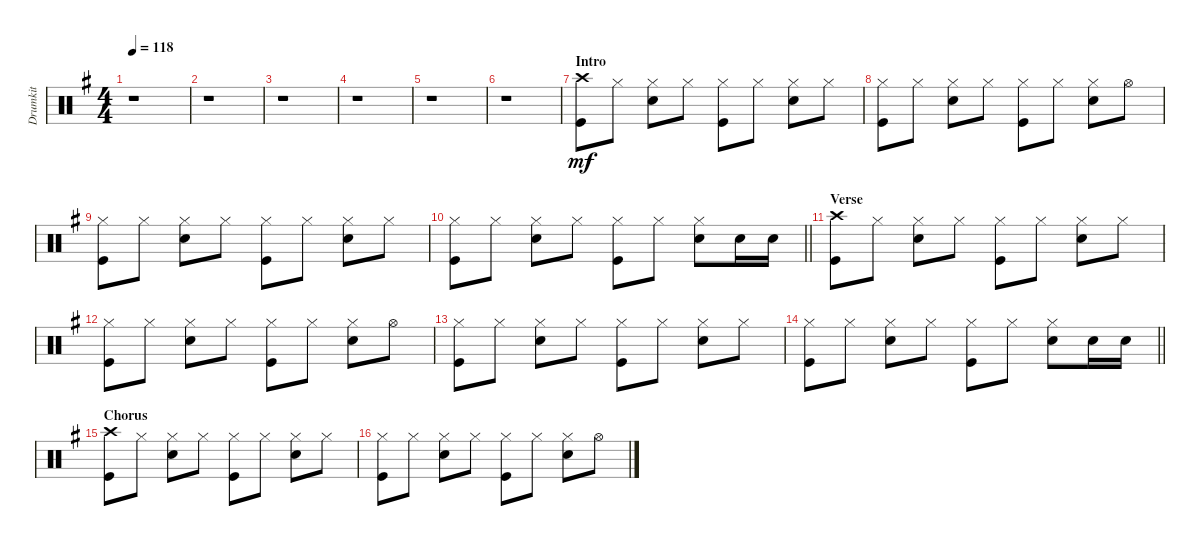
\track ("Drumkit" "Drumkit") {instrument percussion}
\staff {score}
\articulation defaults
\ts (4 4)
\tempo 118
\clef neutral
\ks g
r.1{dy mf} |
r.1 |
r.1 |
r.1 |
r.1 |
r.1 |
\section ("" "Intro")
("Crash high (hit)" "Kick (hit)").8 "Hi-Hat (closed)".8 ("Hi-Hat (closed)" "Snare (hit) 2").8 "Hi-Hat (closed)".8 ("Hi-Hat (closed)" "Kick (hit)").8 "Hi-Hat (closed)".8 ("Hi-Hat (closed)" "Snare (hit) 2").8 "Hi-Hat (closed)".8 |
("Hi-Hat (closed)" "Kick (hit)").8 "Hi-Hat (closed)".8 ("Hi-Hat (closed)" "Snare (hit) 2").8 "Hi-Hat (closed)".8 ("Hi-Hat (closed)" "Kick (hit)").8 "Hi-Hat (closed)".8 ("Hi-Hat (closed)" "Snare (hit) 2").8 "Hi-Hat (open)".8 |
("Hi-Hat (closed)" "Kick (hit)").8 "Hi-Hat (closed)".8 ("Hi-Hat (closed)" "Snare (hit) 2").8 "Hi-Hat (closed)".8 ("Hi-Hat (closed)" "Kick (hit)").8 "Hi-Hat (closed)".8 ("Hi-Hat (closed)" "Snare (hit) 2").8 "Hi-Hat (closed)".8 |
\barLineRight lightlight
("Hi-Hat (closed)" "Kick (hit)").8 "Hi-Hat (closed)".8 ("Hi-Hat (closed)" "Snare (hit) 2").8 "Hi-Hat (closed)".8 ("Hi-Hat (closed)" "Kick (hit)").8 "Hi-Hat (closed)".8 ("Hi-Hat (closed)" "Snare (hit) 2").8 "Snare (hit) 2".16 "Snare (hit) 2".16 |
\section ("" "Verse")
("Crash high (hit)" "Kick (hit)").8 "Hi-Hat (closed)".8 ("Hi-Hat (closed)" "Snare (hit) 2").8 "Hi-Hat (closed)".8 ("Hi-Hat (closed)" "Kick (hit)").8 "Hi-Hat (closed)".8 ("Hi-Hat (closed)" "Snare (hit) 2").8 "Hi-Hat (closed)".8 |
("Hi-Hat (closed)" "Kick (hit)").8 "Hi-Hat (closed)".8 ("Hi-Hat (closed)" "Snare (hit) 2").8 "Hi-Hat (closed)".8 ("Hi-Hat (closed)" "Kick (hit)").8 "Hi-Hat (closed)".8 ("Hi-Hat (closed)" "Snare (hit) 2").8 "Hi-Hat (open)".8 |
("Hi-Hat (closed)" "Kick (hit)").8 "Hi-Hat (closed)".8 ("Hi-Hat (closed)" "Snare (hit) 2").8 "Hi-Hat (closed)".8 ("Hi-Hat (closed)" "Kick (hit)").8 "Hi-Hat (closed)".8 ("Hi-Hat (closed)" "Snare (hit) 2").8 "Hi-Hat (closed)".8 |
\barLineRight lightlight
("Hi-Hat (closed)" "Kick (hit)").8 "Hi-Hat (closed)".8 ("Hi-Hat (closed)" "Snare (hit) 2").8 "Hi-Hat (closed)".8 ("Hi-Hat (closed)" "Kick (hit)").8 "Hi-Hat (closed)".8 ("Hi-Hat (closed)" "Snare (hit) 2").8 "Snare (hit) 2".16 "Snare (hit) 2".16 |
\section ("" "Chorus")
("Crash high (hit)" "Kick (hit)").8 "Hi-Hat (closed)".8 ("Hi-Hat (closed)" "Snare (hit) 2").8 "Hi-Hat (closed)".8 ("Hi-Hat (closed)" "Kick (hit)").8 "Hi-Hat (closed)".8 ("Hi-Hat (closed)" "Snare (hit) 2").8 "Hi-Hat (closed)".8 |
("Hi-Hat (closed)" "Kick (hit)").8 "Hi-Hat (closed)".8 ("Hi-Hat (closed)" "Snare (hit) 2").8 "Hi-Hat (closed)".8 ("Hi-Hat (closed)" "Kick (hit)").8 "Hi-Hat (closed)".8 ("Hi-Hat (closed)" "Snare (hit) 2").8 "Hi-Hat (open)".8
